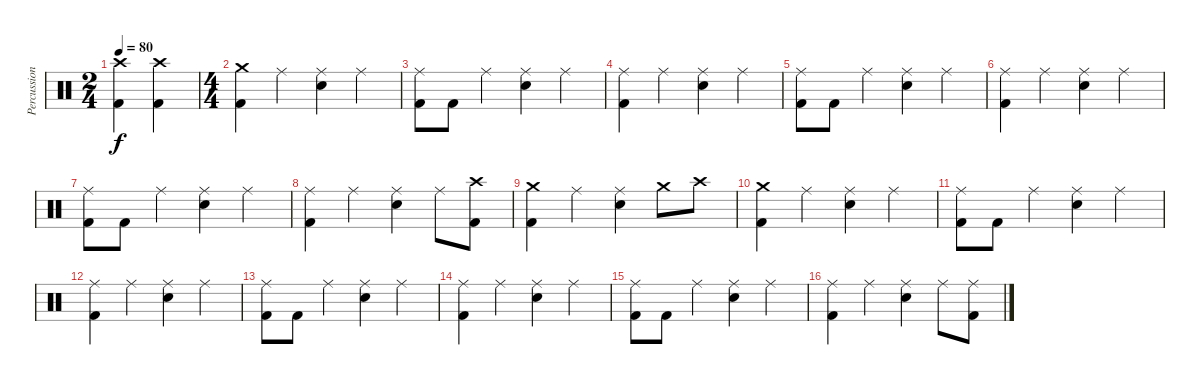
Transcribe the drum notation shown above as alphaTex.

\track ("Percussion" "Percussion") {instrument percussion}
\staff {score}
\articulation defaults
\ts (2 4)
\tempo 80
\clef neutral
\ks c
("Crash high (hit)" "Kick (hit) 2").4{dy f} ("Crash high (hit)" "Kick (hit) 2").4 |
\ts (4 4)
("Crash medium (hit)" "Kick (hit) 2").4 "Ride (middle)".4 ("Ride (middle)" "Snare (hit) 2").4 "Ride (middle)".4 |
("Ride (middle)" "Kick (hit) 2").8 "Kick (hit) 2".8 "Ride (middle)".4 ("Ride (middle)" "Snare (hit) 2").4 "Ride (middle)".4 |
("Ride (middle)" "Kick (hit) 2").4 "Ride (middle)".4 ("Ride (middle)" "Snare (hit) 2").4 "Ride (middle)".4 |
("Ride (middle)" "Kick (hit) 2").8 "Kick (hit) 2".8 "Ride (middle)".4 ("Ride (middle)" "Snare (hit) 2").4 "Ride (middle)".4 |
("Ride (middle)" "Kick (hit) 2").4 "Ride (middle)".4 ("Ride (middle)" "Snare (hit) 2").4 "Ride (middle)".4 |
("Ride (middle)" "Kick (hit) 2").8 "Kick (hit) 2".8 "Ride (middle)".4 ("Ride (middle)" "Snare (hit) 2").4 "Ride (middle)".4 |
("Ride (middle)" "Kick (hit) 2").4 "Ride (middle)".4 ("Ride (middle)" "Snare (hit) 2").4 "Ride (middle)".8 ("Crash high (hit)" "Kick (hit) 2").8 |
("Crash medium (hit)" "Kick (hit) 2").4 "Ride (middle)".4 ("Ride (middle)" "Snare (hit) 2").4 "Crash medium (hit)".8 "Crash high (hit)".8 |
("Crash medium (hit)" "Kick (hit) 2").4 "Ride (middle)".4 ("Ride (middle)" "Snare (hit) 2").4 "Ride (middle)".4 |
("Ride (middle)" "Kick (hit) 2").8 "Kick (hit) 2".8 "Ride (middle)".4 ("Ride (middle)" "Snare (hit) 2").4 "Ride (middle)".4 |
("Ride (middle)" "Kick (hit) 2").4 "Ride (middle)".4 ("Ride (middle)" "Snare (hit) 2").4 "Ride (middle)".4 |
("Ride (middle)" "Kick (hit) 2").8 "Kick (hit) 2".8 "Ride (middle)".4 ("Ride (middle)" "Snare (hit) 2").4 "Ride (middle)".4 |
("Ride (middle)" "Kick (hit) 2").4 "Ride (middle)".4 ("Ride (middle)" "Snare (hit) 2").4 "Ride (middle)".4 |
("Ride (middle)" "Kick (hit) 2").8 "Kick (hit) 2".8 "Ride (middle)".4 ("Ride (middle)" "Snare (hit) 2").4 "Ride (middle)".4 |
("Ride (middle)" "Kick (hit) 2").4 "Ride (middle)".4 ("Ride (middle)" "Snare (hit) 2").4 "Ride (middle)".8 ("Ride (middle)" "Kick (hit) 2").8
